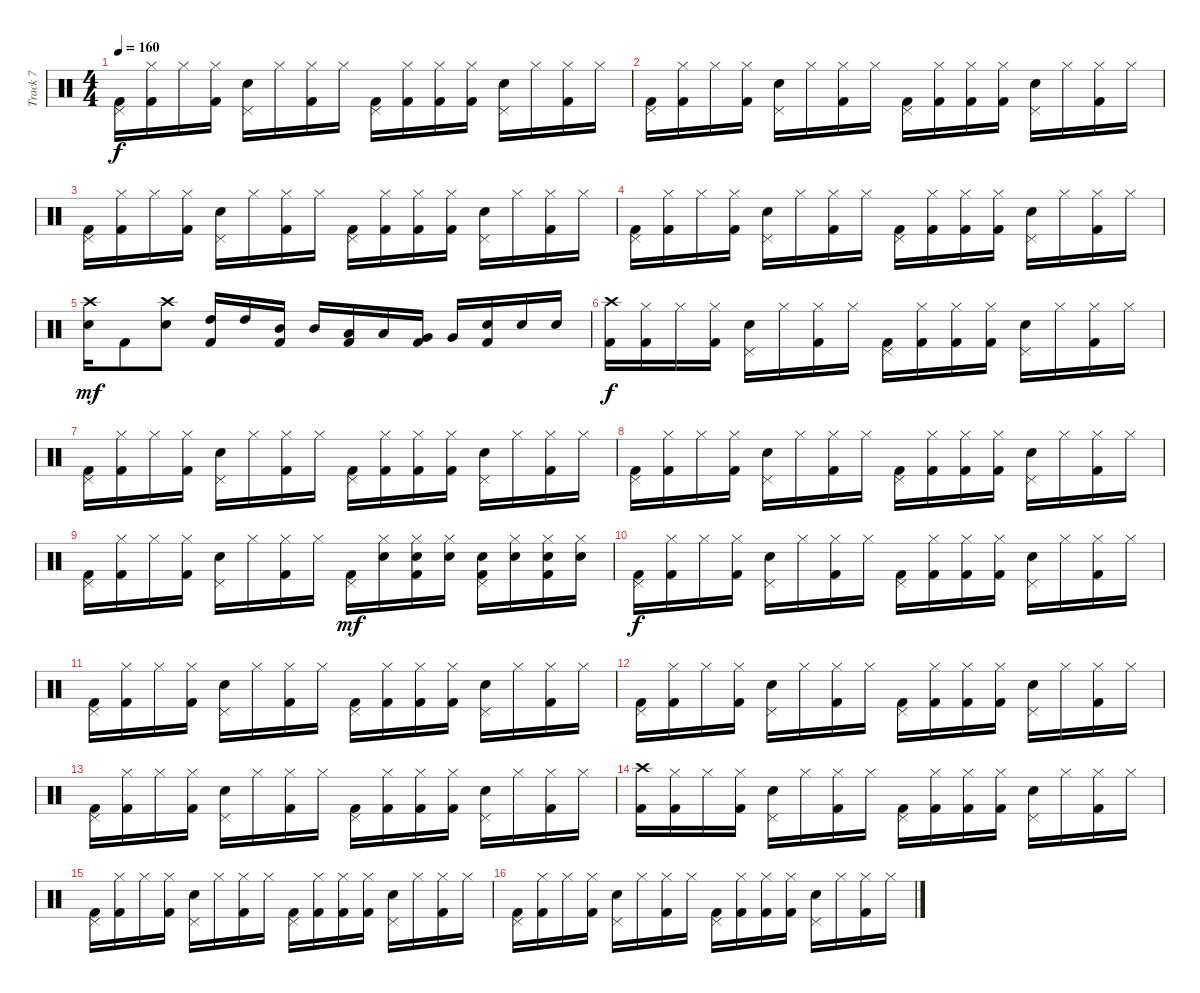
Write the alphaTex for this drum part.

\track ("Track 7" "Track 7") {instrument percussion}
\staff {score}
\articulation defaults
\ts (4 4)
\tempo 160
\clef neutral
\ks c
("Pedal Hi-Hat (hit)" "Kick (hit) 2").16{dy f} ("Hi-Hat (closed)" "Kick (hit) 2").16 "Hi-Hat (closed)".16 ("Hi-Hat (closed)" "Kick (hit) 2").16 ("Pedal Hi-Hat (hit)" "Snare (hit) 2").16 "Hi-Hat (closed)".16 ("Hi-Hat (closed)" "Kick (hit) 2").16 "Hi-Hat (closed)".16 ("Pedal Hi-Hat (hit)" "Kick (hit) 2").16 ("Hi-Hat (closed)" "Kick (hit) 2").16 ("Hi-Hat (closed)" "Kick (hit) 2").16 ("Hi-Hat (closed)" "Kick (hit) 2").16 ("Pedal Hi-Hat (hit)" "Snare (hit) 2").16 "Hi-Hat (closed)".16 ("Hi-Hat (closed)" "Kick (hit) 2").16 "Hi-Hat (closed)".16 |
("Pedal Hi-Hat (hit)" "Kick (hit) 2").16 ("Hi-Hat (closed)" "Kick (hit) 2").16 "Hi-Hat (closed)".16 ("Hi-Hat (closed)" "Kick (hit) 2").16 ("Pedal Hi-Hat (hit)" "Snare (hit) 2").16 "Hi-Hat (closed)".16 ("Hi-Hat (closed)" "Kick (hit) 2").16 "Hi-Hat (closed)".16 ("Pedal Hi-Hat (hit)" "Kick (hit) 2").16 ("Hi-Hat (closed)" "Kick (hit) 2").16 ("Hi-Hat (closed)" "Kick (hit) 2").16 ("Hi-Hat (closed)" "Kick (hit) 2").16 ("Pedal Hi-Hat (hit)" "Snare (hit) 2").16 "Hi-Hat (closed)".16 ("Hi-Hat (closed)" "Kick (hit) 2").16 "Hi-Hat (closed)".16 |
("Pedal Hi-Hat (hit)" "Kick (hit) 2").16 ("Hi-Hat (closed)" "Kick (hit) 2").16 "Hi-Hat (closed)".16 ("Hi-Hat (closed)" "Kick (hit) 2").16 ("Pedal Hi-Hat (hit)" "Snare (hit) 2").16 "Hi-Hat (closed)".16 ("Hi-Hat (closed)" "Kick (hit) 2").16 "Hi-Hat (closed)".16 ("Pedal Hi-Hat (hit)" "Kick (hit) 2").16 ("Hi-Hat (closed)" "Kick (hit) 2").16 ("Hi-Hat (closed)" "Kick (hit) 2").16 ("Hi-Hat (closed)" "Kick (hit) 2").16 ("Pedal Hi-Hat (hit)" "Snare (hit) 2").16 "Hi-Hat (closed)".16 ("Hi-Hat (closed)" "Kick (hit) 2").16 "Hi-Hat (closed)".16 |
("Pedal Hi-Hat (hit)" "Kick (hit) 2").16 ("Hi-Hat (closed)" "Kick (hit) 2").16 "Hi-Hat (closed)".16 ("Hi-Hat (closed)" "Kick (hit) 2").16 ("Pedal Hi-Hat (hit)" "Snare (hit) 2").16 "Hi-Hat (closed)".16 ("Hi-Hat (closed)" "Kick (hit) 2").16 "Hi-Hat (closed)".16 ("Pedal Hi-Hat (hit)" "Kick (hit) 2").16 ("Hi-Hat (closed)" "Kick (hit) 2").16 ("Hi-Hat (closed)" "Kick (hit) 2").16 ("Hi-Hat (closed)" "Kick (hit) 2").16 ("Pedal Hi-Hat (hit)" "Snare (hit) 2").16 "Hi-Hat (closed)".16 ("Hi-Hat (closed)" "Kick (hit) 2").16 "Hi-Hat (closed)".16 |
("Crash high (hit)" "Snare (hit) 2").16{dy mf} "Kick (hit) 2".8 ("Crash high (hit)" "Snare (hit) 2").8 ("High Tom (hit)" "Kick (hit) 2").16 "High Tom (hit)".16 ("Mid Tom (hit)" "Kick (hit) 2").16 "Mid Tom (hit)".16 ("Low Tom (hit)" "Kick (hit) 2").16 "Low Tom (hit)".16 ("Very Low Tom (hit)" "Kick (hit) 2").16 "Very Low Tom (hit)".16 ("Snare (hit) 2" "Kick (hit) 2").16 "Snare (hit) 2".16 "Snare (hit) 2".16 |
("Crash high (hit)" "Kick (hit) 2").16{dy f} ("Hi-Hat (closed)" "Kick (hit) 2").16 "Hi-Hat (closed)".16 ("Hi-Hat (closed)" "Kick (hit) 2").16 ("Pedal Hi-Hat (hit)" "Snare (hit) 2").16 "Hi-Hat (closed)".16 ("Hi-Hat (closed)" "Kick (hit) 2").16 "Hi-Hat (closed)".16 ("Pedal Hi-Hat (hit)" "Kick (hit) 2").16 ("Hi-Hat (closed)" "Kick (hit) 2").16 ("Hi-Hat (closed)" "Kick (hit) 2").16 ("Hi-Hat (closed)" "Kick (hit) 2").16 ("Pedal Hi-Hat (hit)" "Snare (hit) 2").16 "Hi-Hat (closed)".16 ("Hi-Hat (closed)" "Kick (hit) 2").16 "Hi-Hat (closed)".16 |
("Pedal Hi-Hat (hit)" "Kick (hit) 2").16 ("Hi-Hat (closed)" "Kick (hit) 2").16 "Hi-Hat (closed)".16 ("Hi-Hat (closed)" "Kick (hit) 2").16 ("Pedal Hi-Hat (hit)" "Snare (hit) 2").16 "Hi-Hat (closed)".16 ("Hi-Hat (closed)" "Kick (hit) 2").16 "Hi-Hat (closed)".16 ("Pedal Hi-Hat (hit)" "Kick (hit) 2").16 ("Hi-Hat (closed)" "Kick (hit) 2").16 ("Hi-Hat (closed)" "Kick (hit) 2").16 ("Hi-Hat (closed)" "Kick (hit) 2").16 ("Pedal Hi-Hat (hit)" "Snare (hit) 2").16 "Hi-Hat (closed)".16 ("Hi-Hat (closed)" "Kick (hit) 2").16 "Hi-Hat (closed)".16 |
("Pedal Hi-Hat (hit)" "Kick (hit) 2").16 ("Hi-Hat (closed)" "Kick (hit) 2").16 "Hi-Hat (closed)".16 ("Hi-Hat (closed)" "Kick (hit) 2").16 ("Pedal Hi-Hat (hit)" "Snare (hit) 2").16 "Hi-Hat (closed)".16 ("Hi-Hat (closed)" "Kick (hit) 2").16 "Hi-Hat (closed)".16 ("Pedal Hi-Hat (hit)" "Kick (hit) 2").16 ("Hi-Hat (closed)" "Kick (hit) 2").16 ("Hi-Hat (closed)" "Kick (hit) 2").16 ("Hi-Hat (closed)" "Kick (hit) 2").16 ("Pedal Hi-Hat (hit)" "Snare (hit) 2").16 "Hi-Hat (closed)".16 ("Hi-Hat (closed)" "Kick (hit) 2").16 "Hi-Hat (closed)".16 |
("Pedal Hi-Hat (hit)" "Kick (hit) 2").16 ("Hi-Hat (closed)" "Kick (hit) 2").16 "Hi-Hat (closed)".16 ("Hi-Hat (closed)" "Kick (hit) 2").16 ("Pedal Hi-Hat (hit)" "Snare (hit) 2").16 "Hi-Hat (closed)".16 ("Hi-Hat (closed)" "Kick (hit) 2").16 "Hi-Hat (closed)".16 ("Pedal Hi-Hat (hit)" "Kick (hit) 2").16{dy mf} ("Hi-Hat (closed)" "Snare (hit) 2").16 ("Hi-Hat (closed)" "Snare (hit) 2" "Kick (hit) 2").16 ("Hi-Hat (closed)" "Snare (hit) 2").16 ("Pedal Hi-Hat (hit)" "Snare (hit) 2" "Kick (hit) 2").16 ("Hi-Hat (closed)" "Snare (hit) 2").16 ("Hi-Hat (closed)" "Snare (hit) 2" "Kick (hit) 2").16 ("Hi-Hat (closed)" "Snare (hit) 2").16 |
("Pedal Hi-Hat (hit)" "Kick (hit) 2").16{dy f} ("Hi-Hat (closed)" "Kick (hit) 2").16 "Hi-Hat (closed)".16 ("Hi-Hat (closed)" "Kick (hit) 2").16 ("Pedal Hi-Hat (hit)" "Snare (hit) 2").16 "Hi-Hat (closed)".16 ("Hi-Hat (closed)" "Kick (hit) 2").16 "Hi-Hat (closed)".16 ("Pedal Hi-Hat (hit)" "Kick (hit) 2").16 ("Hi-Hat (closed)" "Kick (hit) 2").16 ("Hi-Hat (closed)" "Kick (hit) 2").16 ("Hi-Hat (closed)" "Kick (hit) 2").16 ("Pedal Hi-Hat (hit)" "Snare (hit) 2").16 "Hi-Hat (closed)".16 ("Hi-Hat (closed)" "Kick (hit) 2").16 "Hi-Hat (closed)".16 |
("Pedal Hi-Hat (hit)" "Kick (hit) 2").16 ("Hi-Hat (closed)" "Kick (hit) 2").16 "Hi-Hat (closed)".16 ("Hi-Hat (closed)" "Kick (hit) 2").16 ("Pedal Hi-Hat (hit)" "Snare (hit) 2").16 "Hi-Hat (closed)".16 ("Hi-Hat (closed)" "Kick (hit) 2").16 "Hi-Hat (closed)".16 ("Pedal Hi-Hat (hit)" "Kick (hit) 2").16 ("Hi-Hat (closed)" "Kick (hit) 2").16 ("Hi-Hat (closed)" "Kick (hit) 2").16 ("Hi-Hat (closed)" "Kick (hit) 2").16 ("Pedal Hi-Hat (hit)" "Snare (hit) 2").16 "Hi-Hat (closed)".16 ("Hi-Hat (closed)" "Kick (hit) 2").16 "Hi-Hat (closed)".16 |
("Pedal Hi-Hat (hit)" "Kick (hit) 2").16 ("Hi-Hat (closed)" "Kick (hit) 2").16 "Hi-Hat (closed)".16 ("Hi-Hat (closed)" "Kick (hit) 2").16 ("Pedal Hi-Hat (hit)" "Snare (hit) 2").16 "Hi-Hat (closed)".16 ("Hi-Hat (closed)" "Kick (hit) 2").16 "Hi-Hat (closed)".16 ("Pedal Hi-Hat (hit)" "Kick (hit) 2").16 ("Hi-Hat (closed)" "Kick (hit) 2").16 ("Hi-Hat (closed)" "Kick (hit) 2").16 ("Hi-Hat (closed)" "Kick (hit) 2").16 ("Pedal Hi-Hat (hit)" "Snare (hit) 2").16 "Hi-Hat (closed)".16 ("Hi-Hat (closed)" "Kick (hit) 2").16 "Hi-Hat (closed)".16 |
("Pedal Hi-Hat (hit)" "Kick (hit) 2").16 ("Hi-Hat (closed)" "Kick (hit) 2").16 "Hi-Hat (closed)".16 ("Hi-Hat (closed)" "Kick (hit) 2").16 ("Pedal Hi-Hat (hit)" "Snare (hit) 2").16 "Hi-Hat (closed)".16 ("Hi-Hat (closed)" "Kick (hit) 2").16 "Hi-Hat (closed)".16 ("Pedal Hi-Hat (hit)" "Kick (hit) 2").16 ("Hi-Hat (closed)" "Kick (hit) 2").16 ("Hi-Hat (closed)" "Kick (hit) 2").16 ("Hi-Hat (closed)" "Kick (hit) 2").16 ("Pedal Hi-Hat (hit)" "Snare (hit) 2").16 "Hi-Hat (closed)".16 ("Hi-Hat (closed)" "Kick (hit) 2").16 "Hi-Hat (closed)".16 |
("Crash high (hit)" "Kick (hit) 2").16 ("Hi-Hat (closed)" "Kick (hit) 2").16 "Hi-Hat (closed)".16 ("Hi-Hat (closed)" "Kick (hit) 2").16 ("Pedal Hi-Hat (hit)" "Snare (hit) 2").16 "Hi-Hat (closed)".16 ("Hi-Hat (closed)" "Kick (hit) 2").16 "Hi-Hat (closed)".16 ("Pedal Hi-Hat (hit)" "Kick (hit) 2").16 ("Hi-Hat (closed)" "Kick (hit) 2").16 ("Hi-Hat (closed)" "Kick (hit) 2").16 ("Hi-Hat (closed)" "Kick (hit) 2").16 ("Pedal Hi-Hat (hit)" "Snare (hit) 2").16 "Hi-Hat (closed)".16 ("Hi-Hat (closed)" "Kick (hit) 2").16 "Hi-Hat (closed)".16 |
("Pedal Hi-Hat (hit)" "Kick (hit) 2").16 ("Hi-Hat (closed)" "Kick (hit) 2").16 "Hi-Hat (closed)".16 ("Hi-Hat (closed)" "Kick (hit) 2").16 ("Pedal Hi-Hat (hit)" "Snare (hit) 2").16 "Hi-Hat (closed)".16 ("Hi-Hat (closed)" "Kick (hit) 2").16 "Hi-Hat (closed)".16 ("Pedal Hi-Hat (hit)" "Kick (hit) 2").16 ("Hi-Hat (closed)" "Kick (hit) 2").16 ("Hi-Hat (closed)" "Kick (hit) 2").16 ("Hi-Hat (closed)" "Kick (hit) 2").16 ("Pedal Hi-Hat (hit)" "Snare (hit) 2").16 "Hi-Hat (closed)".16 ("Hi-Hat (closed)" "Kick (hit) 2").16 "Hi-Hat (closed)".16 |
("Pedal Hi-Hat (hit)" "Kick (hit) 2").16 ("Hi-Hat (closed)" "Kick (hit) 2").16 "Hi-Hat (closed)".16 ("Hi-Hat (closed)" "Kick (hit) 2").16 ("Pedal Hi-Hat (hit)" "Snare (hit) 2").16 "Hi-Hat (closed)".16 ("Hi-Hat (closed)" "Kick (hit) 2").16 "Hi-Hat (closed)".16 ("Pedal Hi-Hat (hit)" "Kick (hit) 2").16 ("Hi-Hat (closed)" "Kick (hit) 2").16 ("Hi-Hat (closed)" "Kick (hit) 2").16 ("Hi-Hat (closed)" "Kick (hit) 2").16 ("Pedal Hi-Hat (hit)" "Snare (hit) 2").16 "Hi-Hat (closed)".16 ("Hi-Hat (closed)" "Kick (hit) 2").16 "Hi-Hat (closed)".16
